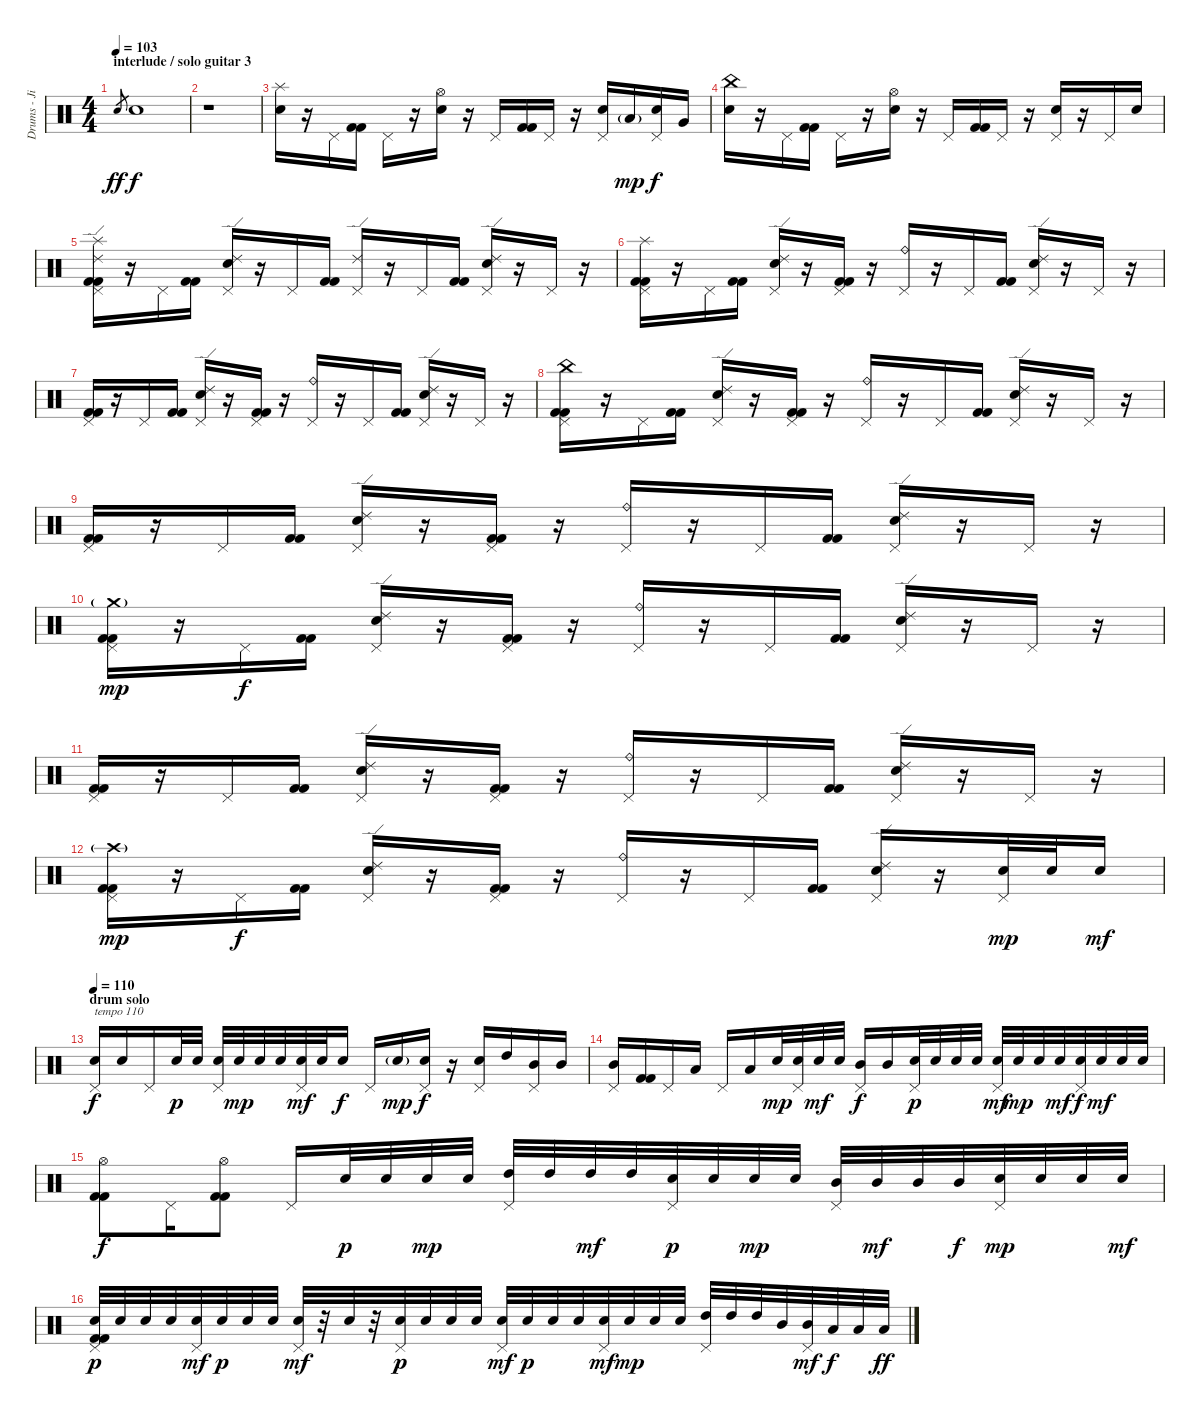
\track ("Drums - Jimmy" "Drums - Ji") {instrument percussion}
\staff {score}
\articulation defaults
\ts (4 4)
\section ("" "interlude / solo guitar 3")
\tempo 103
\clef neutral
\ks c "Electric Snare (hit)".8{gr dy ff} "Electric Snare (hit)".1{dy f}
|
r.1 |
("Splash (hit)" "Electric Snare (hit)").16 r.16 "Pedal Hi-Hat (hit)".16 ("Kick (hit) 2" "Kick (hit) 2").16 "Pedal Hi-Hat (hit)".16 r.16 ("Hi-Hat (open)" "Electric Snare (hit)").16 r.16 "Pedal Hi-Hat (hit)".16 ("Kick (hit) 2" "Kick (hit) 2").16 "Pedal Hi-Hat (hit)".16 r.16 ("Pedal Hi-Hat (hit)" "Electric Snare (hit)").16 "Low Tom (hit)"{g}.16{dy mp} ("Pedal Hi-Hat (hit)" "Electric Snare (hit)").16{dy f} "Very Low Tom (hit)".16 |
("China (hit)" "Electric Snare (hit)").16 r.16 "Pedal Hi-Hat (hit)".16 ("Kick (hit) 2" "Kick (hit) 2").16 "Pedal Hi-Hat (hit)".16 r.16 ("Hi-Hat (open)" "Electric Snare (hit)").16 r.16 "Pedal Hi-Hat (hit)".16 ("Kick (hit) 2" "Kick (hit) 2").16 "Pedal Hi-Hat (hit)".16 r.16 ("Pedal Hi-Hat (hit)" "Electric Snare (hit)").16 r.16 "Pedal Hi-Hat (hit)".16 "Electric Snare (hit)".16 |
("Pedal Hi-Hat (hit)" "Splash (hit)" "Ride (edge) 2" "Kick (hit) 2" "Kick (hit) 2").16 r.16 "Pedal Hi-Hat (hit)".16 ("Kick (hit) 2" "Kick (hit) 2").16 ("Pedal Hi-Hat (hit)" "Ride (edge) 2" "Electric Snare (hit)").16 r.16 "Pedal Hi-Hat (hit)".16 ("Kick (hit) 2" "Kick (hit) 2").16 ("Pedal Hi-Hat (hit)" "Ride (edge) 2").16 r.16 "Pedal Hi-Hat (hit)".16 ("Kick (hit) 2" "Kick (hit) 2").16 ("Pedal Hi-Hat (hit)" "Ride (edge) 2" "Electric Snare (hit)").16 r.16 "Pedal Hi-Hat (hit)".16 r.16 |
("Pedal Hi-Hat (hit)" "Splash (hit)" "Kick (hit) 2" "Kick (hit) 2").16 r.16 "Pedal Hi-Hat (hit)".16 ("Kick (hit) 2" "Kick (hit) 2").16 ("Pedal Hi-Hat (hit)" "Ride (edge) 2" "Electric Snare (hit)").16 r.16 ("Pedal Hi-Hat (hit)" "Kick (hit) 2" "Kick (hit) 2").16 r.16 ("Pedal Hi-Hat (hit)" "Ride (bell)").16 r.16 "Pedal Hi-Hat (hit)".16 ("Kick (hit) 2" "Kick (hit) 2").16 ("Pedal Hi-Hat (hit)" "Ride (edge) 2" "Electric Snare (hit)").16 r.16 "Pedal Hi-Hat (hit)".16 r.16 |
("Pedal Hi-Hat (hit)" "Kick (hit) 2" "Kick (hit) 2").16 r.16 "Pedal Hi-Hat (hit)".16 ("Kick (hit) 2" "Kick (hit) 2").16 ("Pedal Hi-Hat (hit)" "Ride (edge) 2" "Electric Snare (hit)").16 r.16 ("Pedal Hi-Hat (hit)" "Kick (hit) 2" "Kick (hit) 2").16 r.16 ("Pedal Hi-Hat (hit)" "Ride (bell)").16 r.16 "Pedal Hi-Hat (hit)".16 ("Kick (hit) 2" "Kick (hit) 2").16 ("Pedal Hi-Hat (hit)" "Ride (edge) 2" "Electric Snare (hit)").16 r.16 "Pedal Hi-Hat (hit)".16 r.16 |
("Pedal Hi-Hat (hit)" "China (hit)" "Kick (hit) 2" "Kick (hit) 2").16 r.16 "Pedal Hi-Hat (hit)".16 ("Kick (hit) 2" "Kick (hit) 2").16 ("Pedal Hi-Hat (hit)" "Ride (edge) 2" "Electric Snare (hit)").16 r.16 ("Pedal Hi-Hat (hit)" "Kick (hit) 2" "Kick (hit) 2").16 r.16 ("Pedal Hi-Hat (hit)" "Ride (bell)").16 r.16 "Pedal Hi-Hat (hit)".16 ("Kick (hit) 2" "Kick (hit) 2").16 ("Pedal Hi-Hat (hit)" "Ride (edge) 2" "Electric Snare (hit)").16 r.16 "Pedal Hi-Hat (hit)".16 r.16 |
("Pedal Hi-Hat (hit)" "Kick (hit) 2" "Kick (hit) 2").16 r.16 "Pedal Hi-Hat (hit)".16 ("Kick (hit) 2" "Kick (hit) 2").16 ("Pedal Hi-Hat (hit)" "Ride (edge) 2" "Electric Snare (hit)").16 r.16 ("Pedal Hi-Hat (hit)" "Kick (hit) 2" "Kick (hit) 2").16 r.16 ("Pedal Hi-Hat (hit)" "Ride (bell)").16 r.16 "Pedal Hi-Hat (hit)".16 ("Kick (hit) 2" "Kick (hit) 2").16 ("Pedal Hi-Hat (hit)" "Ride (edge) 2" "Electric Snare (hit)").16 r.16 "Pedal Hi-Hat (hit)".16 r.16 |
("Pedal Hi-Hat (hit)" "Crash medium (hit)"{g} "Kick (hit) 2" "Kick (hit) 2").16{dy mp} r.16 "Pedal Hi-Hat (hit)".16{dy f} ("Kick (hit) 2" "Kick (hit) 2").16 ("Pedal Hi-Hat (hit)" "Ride (edge) 2" "Electric Snare (hit)").16 r.16 ("Pedal Hi-Hat (hit)" "Kick (hit) 2" "Kick (hit) 2").16 r.16 ("Pedal Hi-Hat (hit)" "Ride (bell)").16 r.16 "Pedal Hi-Hat (hit)".16 ("Kick (hit) 2" "Kick (hit) 2").16 ("Pedal Hi-Hat (hit)" "Ride (edge) 2" "Electric Snare (hit)").16 r.16 "Pedal Hi-Hat (hit)".16 r.16 |
("Pedal Hi-Hat (hit)" "Kick (hit) 2" "Kick (hit) 2").16 r.16 "Pedal Hi-Hat (hit)".16 ("Kick (hit) 2" "Kick (hit) 2").16 ("Pedal Hi-Hat (hit)" "Ride (edge) 2" "Electric Snare (hit)").16 r.16 ("Pedal Hi-Hat (hit)" "Kick (hit) 2" "Kick (hit) 2").16 r.16 ("Pedal Hi-Hat (hit)" "Ride (bell)").16 r.16 "Pedal Hi-Hat (hit)".16 ("Kick (hit) 2" "Kick (hit) 2").16 ("Pedal Hi-Hat (hit)" "Ride (edge) 2" "Electric Snare (hit)").16 r.16 "Pedal Hi-Hat (hit)".16 r.16 |
("Pedal Hi-Hat (hit)" "Crash high (hit)"{g} "Kick (hit) 2" "Kick (hit) 2").16{dy mp} r.16 "Pedal Hi-Hat (hit)".16{dy f} ("Kick (hit) 2" "Kick (hit) 2").16 ("Pedal Hi-Hat (hit)" "Ride (edge) 2" "Electric Snare (hit)").16 r.16 ("Pedal Hi-Hat (hit)" "Kick (hit) 2" "Kick (hit) 2").16 r.16 ("Pedal Hi-Hat (hit)" "Ride (bell)").16 r.16 "Pedal Hi-Hat (hit)".16 ("Kick (hit) 2" "Kick (hit) 2").16 ("Pedal Hi-Hat (hit)" "Ride (edge) 2" "Electric Snare (hit)").16 r.16 ("Pedal Hi-Hat (hit)" "Electric Snare (hit)").32{dy mp} "Electric Snare (hit)".32 "Electric Snare (hit)".16{dy mf} |
\section ("" "drum solo")
\tempo 110
("Pedal Hi-Hat (hit)" "Electric Snare (hit)").16{txt "tempo 110" dy f} "Electric Snare (hit)".16 "Pedal Hi-Hat (hit)".16 "Electric Snare (hit)".32{dy p} "Electric Snare (hit)".32 ("Pedal Hi-Hat (hit)" "Electric Snare (hit)").32 "Electric Snare (hit)".32{dy mp} "Electric Snare (hit)".32 "Electric Snare (hit)".32 ("Pedal Hi-Hat (hit)" "Electric Snare (hit)").32{dy mf} "Electric Snare (hit)".32 "Electric Snare (hit)".16{dy f} "Pedal Hi-Hat (hit)".16 "Electric Snare (hit)"{g}.16{dy mp} ("Pedal Hi-Hat (hit)" "Electric Snare (hit)").16{dy f} r.16 ("Pedal Hi-Hat (hit)" "Electric Snare (hit)").16 "High Tom (hit)".16 ("Pedal Hi-Hat (hit)" "Mid Tom (hit)").16 "Mid Tom (hit)".16 |
("Pedal Hi-Hat (hit)" "Mid Tom (hit)").16 ("Kick (hit) 2" "Kick (hit) 2").16 "Pedal Hi-Hat (hit)".16 "Low Tom (hit)".16 "Pedal Hi-Hat (hit)".16 "Low Tom (hit)".16 "Electric Snare (hit)".32{dy mp} ("Pedal Hi-Hat (hit)" "Electric Snare (hit)").32 "Electric Snare (hit)".32{dy mf} "Electric Snare (hit)".32 ("Pedal Hi-Hat (hit)" "Mid Tom (hit)").16{dy f} "Mid Tom (hit)".16 ("Pedal Hi-Hat (hit)" "Electric Snare (hit)").32{dy p} "Electric Snare (hit)".32 "Electric Snare (hit)".32 "Electric Snare (hit)".32 ("Pedal Hi-Hat (hit)" "Electric Snare (hit)").32{dy mf} "Electric Snare (hit)".32{dy mp} "Electric Snare (hit)".32 "Electric Snare (hit)".32{dy mf} ("Pedal Hi-Hat (hit)" "Electric Snare (hit)").32{dy f} "Electric Snare (hit)".32{dy mf} "Electric Snare (hit)".32 "Electric Snare (hit)".32 |
("Hi-Hat (open)" "Kick (hit) 2" "Kick (hit) 2").8{dy f} "Pedal Hi-Hat (hit)".16 ("Hi-Hat (open)" "Kick (hit) 2" "Kick (hit) 2").8 "Pedal Hi-Hat (hit)".16 "Electric Snare (hit)".32{dy p} "Electric Snare (hit)".32 "Electric Snare (hit)".32{dy mp} "Electric Snare (hit)".32 ("Pedal Hi-Hat (hit)" "High Tom (hit)").32 "High Tom (hit)".32 "High Tom (hit)".32{dy mf} "High Tom (hit)".32 ("Pedal Hi-Hat (hit)" "Electric Snare (hit)").32{dy p} "Electric Snare (hit)".32 "Electric Snare (hit)".32{dy mp} "Electric Snare (hit)".32 ("Pedal Hi-Hat (hit)" "Mid Tom (hit)").32 "Mid Tom (hit)".32{dy mf} "Mid Tom (hit)".32 "Mid Tom (hit)".32{dy f} ("Pedal Hi-Hat (hit)" "Electric Snare (hit)").32{dy mp} "Electric Snare (hit)".32 "Electric Snare (hit)".32 "Electric Snare (hit)".32{dy mf} |
("Pedal Hi-Hat (hit)" "Electric Snare (hit)" "Kick (hit) 2" "Kick (hit) 2").32{dy p} "Electric Snare (hit)".32 "Electric Snare (hit)".32 "Electric Snare (hit)".32 ("Pedal Hi-Hat (hit)" "Electric Snare (hit)").32{dy mf} "Electric Snare (hit)".32{dy p} "Electric Snare (hit)".32 "Electric Snare (hit)".32 ("Pedal Hi-Hat (hit)" "Electric Snare (hit)").32{dy mf} r.32 "Electric Snare (hit)".32 r.32 ("Pedal Hi-Hat (hit)" "Electric Snare (hit)").32{dy p} "Electric Snare (hit)".32 "Electric Snare (hit)".32 "Electric Snare (hit)".32 ("Pedal Hi-Hat (hit)" "Electric Snare (hit)").32{dy mf} "Electric Snare (hit)".32{dy p} "Electric Snare (hit)".32 "Electric Snare (hit)".32 ("Pedal Hi-Hat (hit)" "Electric Snare (hit)").32{dy mf} "Electric Snare (hit)".32{dy mp} "Electric Snare (hit)".32 "Electric Snare (hit)".32 ("Pedal Hi-Hat (hit)" "High Tom (hit)").32 "High Tom (hit)".32 "High Tom (hit)".32 "Mid Tom (hit)".32 ("Pedal Hi-Hat (hit)" "Mid Tom (hit)").32{dy mf} "Low Tom (hit)".32{dy f} "Low Tom (hit)".32 "Low Tom (hit)".32{dy ff}
